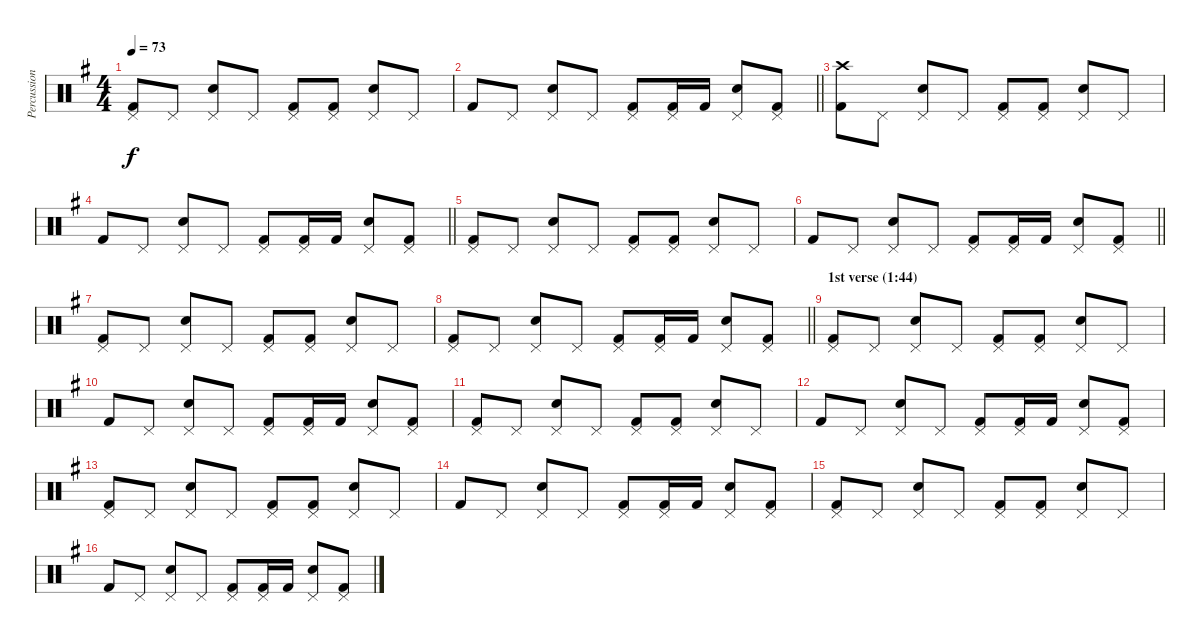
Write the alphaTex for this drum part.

\track ("Percussions" "Percussion") {instrument percussion}
\staff {score}
\articulation defaults
\ts (4 4)
\tempo 73
\clef neutral
\ks g
("Pedal Hi-Hat (hit)" "Kick (hit) 2").8{dy f} "Pedal Hi-Hat (hit)".8 ("Pedal Hi-Hat (hit)" "Snare (hit) 2").8 "Pedal Hi-Hat (hit)".8 ("Pedal Hi-Hat (hit)" "Kick (hit) 2").8 ("Pedal Hi-Hat (hit)" "Kick (hit) 2").8 ("Pedal Hi-Hat (hit)" "Snare (hit) 2").8 "Pedal Hi-Hat (hit)".8 |
\barLineRight lightlight "Kick (hit) 2".8 "Pedal Hi-Hat (hit)".8
("Pedal Hi-Hat (hit)" "Snare (hit) 2").8 "Pedal Hi-Hat (hit)".8 ("Pedal Hi-Hat (hit)" "Kick (hit) 2").8 ("Pedal Hi-Hat (hit)" "Kick (hit) 2").16 "Kick (hit) 2".16 ("Pedal Hi-Hat (hit)" "Snare (hit) 2").8 ("Pedal Hi-Hat (hit)" "Kick (hit) 2").8 |
("Crash high (hit)" "Kick (hit) 2").8 "Pedal Hi-Hat (hit)".8 ("Pedal Hi-Hat (hit)" "Snare (hit) 2").8 "Pedal Hi-Hat (hit)".8 ("Pedal Hi-Hat (hit)" "Kick (hit) 2").8 ("Pedal Hi-Hat (hit)" "Kick (hit) 2").8 ("Pedal Hi-Hat (hit)" "Snare (hit) 2").8 "Pedal Hi-Hat (hit)".8 |
\barLineRight lightlight "Kick (hit) 2".8 "Pedal Hi-Hat (hit)".8
("Pedal Hi-Hat (hit)" "Snare (hit) 2").8 "Pedal Hi-Hat (hit)".8 ("Pedal Hi-Hat (hit)" "Kick (hit) 2").8 ("Pedal Hi-Hat (hit)" "Kick (hit) 2").16 "Kick (hit) 2".16 ("Pedal Hi-Hat (hit)" "Snare (hit) 2").8 ("Pedal Hi-Hat (hit)" "Kick (hit) 2").8 |
("Pedal Hi-Hat (hit)" "Kick (hit) 2").8 "Pedal Hi-Hat (hit)".8 ("Pedal Hi-Hat (hit)" "Snare (hit) 2").8 "Pedal Hi-Hat (hit)".8 ("Pedal Hi-Hat (hit)" "Kick (hit) 2").8 ("Pedal Hi-Hat (hit)" "Kick (hit) 2").8 ("Pedal Hi-Hat (hit)" "Snare (hit) 2").8 "Pedal Hi-Hat (hit)".8 |
\barLineRight lightlight "Kick (hit) 2".8 "Pedal Hi-Hat (hit)".8
("Pedal Hi-Hat (hit)" "Snare (hit) 2").8 "Pedal Hi-Hat (hit)".8 ("Pedal Hi-Hat (hit)" "Kick (hit) 2").8 ("Pedal Hi-Hat (hit)" "Kick (hit) 2").16 "Kick (hit) 2".16 ("Pedal Hi-Hat (hit)" "Snare (hit) 2").8 ("Pedal Hi-Hat (hit)" "Kick (hit) 2").8 |
("Pedal Hi-Hat (hit)" "Kick (hit) 2").8 "Pedal Hi-Hat (hit)".8 ("Pedal Hi-Hat (hit)" "Snare (hit) 2").8 "Pedal Hi-Hat (hit)".8 ("Pedal Hi-Hat (hit)" "Kick (hit) 2").8 ("Pedal Hi-Hat (hit)" "Kick (hit) 2").8 ("Pedal Hi-Hat (hit)" "Snare (hit) 2").8 "Pedal Hi-Hat (hit)".8 |
\barLineRight lightlight
("Pedal Hi-Hat (hit)" "Kick (hit) 2").8 "Pedal Hi-Hat (hit)".8 ("Pedal Hi-Hat (hit)" "Snare (hit) 2").8 "Pedal Hi-Hat (hit)".8 ("Pedal Hi-Hat (hit)" "Kick (hit) 2").8 ("Pedal Hi-Hat (hit)" "Kick (hit) 2").16 "Kick (hit) 2".16 ("Pedal Hi-Hat (hit)" "Snare (hit) 2").8 ("Pedal Hi-Hat (hit)" "Kick (hit) 2").8 |
\section ("" "1st verse (1:44)")
("Pedal Hi-Hat (hit)" "Kick (hit) 2").8 "Pedal Hi-Hat (hit)".8 ("Pedal Hi-Hat (hit)" "Snare (hit) 2").8 "Pedal Hi-Hat (hit)".8 ("Pedal Hi-Hat (hit)" "Kick (hit) 2").8 ("Pedal Hi-Hat (hit)" "Kick (hit) 2").8 ("Pedal Hi-Hat (hit)" "Snare (hit) 2").8 "Pedal Hi-Hat (hit)".8 |
"Kick (hit) 2".8 "Pedal Hi-Hat (hit)".8 ("Pedal Hi-Hat (hit)" "Snare (hit) 2").8 "Pedal Hi-Hat (hit)".8 ("Pedal Hi-Hat (hit)" "Kick (hit) 2").8 ("Pedal Hi-Hat (hit)" "Kick (hit) 2").16 "Kick (hit) 2".16 ("Pedal Hi-Hat (hit)" "Snare (hit) 2").8 ("Pedal Hi-Hat (hit)" "Kick (hit) 2").8 |
("Pedal Hi-Hat (hit)" "Kick (hit) 2").8 "Pedal Hi-Hat (hit)".8 ("Pedal Hi-Hat (hit)" "Snare (hit) 2").8 "Pedal Hi-Hat (hit)".8 ("Pedal Hi-Hat (hit)" "Kick (hit) 2").8 ("Pedal Hi-Hat (hit)" "Kick (hit) 2").8 ("Pedal Hi-Hat (hit)" "Snare (hit) 2").8 "Pedal Hi-Hat (hit)".8 |
"Kick (hit) 2".8 "Pedal Hi-Hat (hit)".8 ("Pedal Hi-Hat (hit)" "Snare (hit) 2").8 "Pedal Hi-Hat (hit)".8 ("Pedal Hi-Hat (hit)" "Kick (hit) 2").8 ("Pedal Hi-Hat (hit)" "Kick (hit) 2").16 "Kick (hit) 2".16 ("Pedal Hi-Hat (hit)" "Snare (hit) 2").8 ("Pedal Hi-Hat (hit)" "Kick (hit) 2").8 |
("Pedal Hi-Hat (hit)" "Kick (hit) 2").8 "Pedal Hi-Hat (hit)".8 ("Pedal Hi-Hat (hit)" "Snare (hit) 2").8 "Pedal Hi-Hat (hit)".8 ("Pedal Hi-Hat (hit)" "Kick (hit) 2").8 ("Pedal Hi-Hat (hit)" "Kick (hit) 2").8 ("Pedal Hi-Hat (hit)" "Snare (hit) 2").8 "Pedal Hi-Hat (hit)".8 |
"Kick (hit) 2".8 "Pedal Hi-Hat (hit)".8 ("Pedal Hi-Hat (hit)" "Snare (hit) 2").8 "Pedal Hi-Hat (hit)".8 ("Pedal Hi-Hat (hit)" "Kick (hit) 2").8 ("Pedal Hi-Hat (hit)" "Kick (hit) 2").16 "Kick (hit) 2".16 ("Pedal Hi-Hat (hit)" "Snare (hit) 2").8 ("Pedal Hi-Hat (hit)" "Kick (hit) 2").8 |
("Pedal Hi-Hat (hit)" "Kick (hit) 2").8 "Pedal Hi-Hat (hit)".8 ("Pedal Hi-Hat (hit)" "Snare (hit) 2").8 "Pedal Hi-Hat (hit)".8 ("Pedal Hi-Hat (hit)" "Kick (hit) 2").8 ("Pedal Hi-Hat (hit)" "Kick (hit) 2").8 ("Pedal Hi-Hat (hit)" "Snare (hit) 2").8 "Pedal Hi-Hat (hit)".8 |
"Kick (hit) 2".8 "Pedal Hi-Hat (hit)".8 ("Pedal Hi-Hat (hit)" "Snare (hit) 2").8 "Pedal Hi-Hat (hit)".8 ("Pedal Hi-Hat (hit)" "Kick (hit) 2").8 ("Pedal Hi-Hat (hit)" "Kick (hit) 2").16 "Kick (hit) 2".16 ("Pedal Hi-Hat (hit)" "Snare (hit) 2").8 ("Pedal Hi-Hat (hit)" "Kick (hit) 2").8
